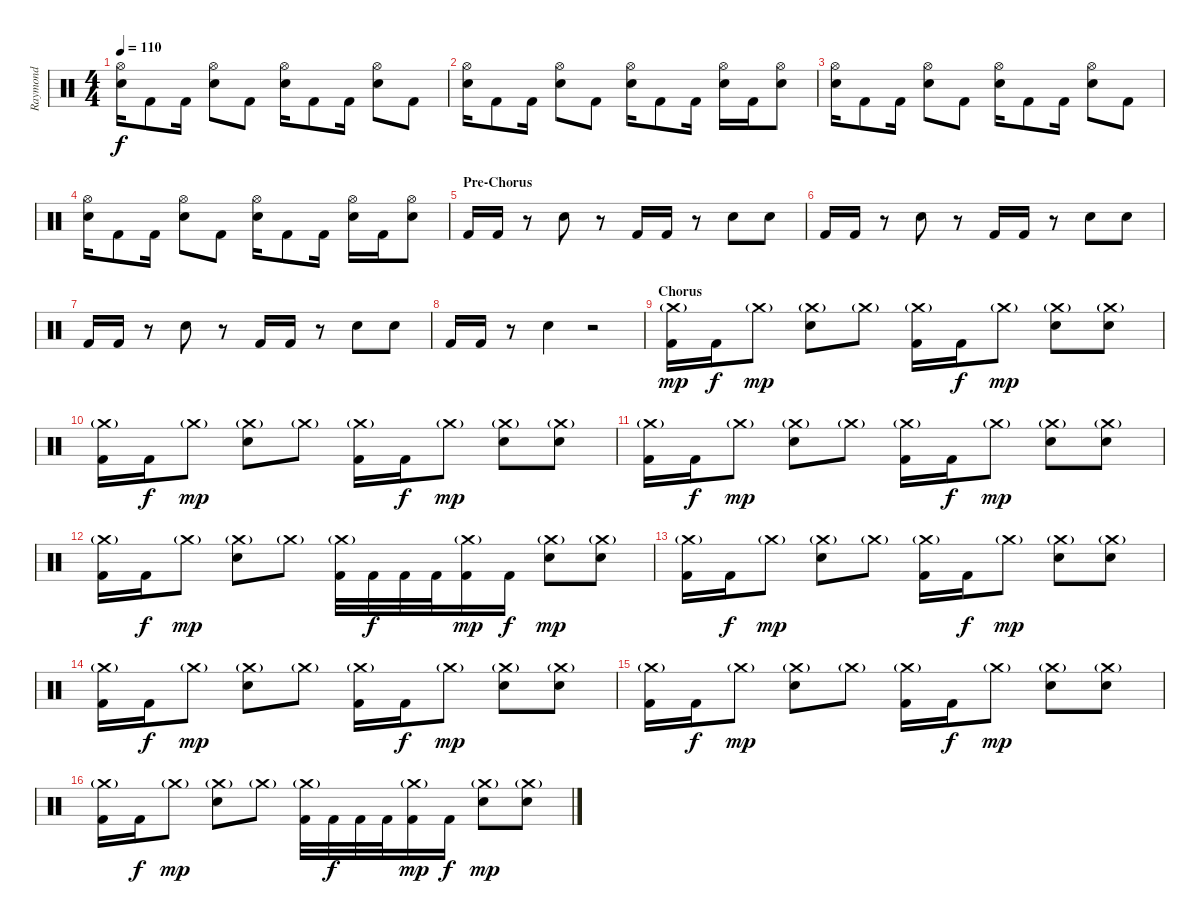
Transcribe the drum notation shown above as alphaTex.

\track ("Raymond" "Raymond") {instrument percussion}
\staff {score}
\articulation defaults
\ts (4 4)
\tempo 110
\clef neutral
\ks c
("Hi-Hat (open)" "Electric Snare (hit)").16{dy f} "Kick (hit) 2".8 "Kick (hit) 2".16 ("Hi-Hat (open)" "Electric Snare (hit)").8 "Kick (hit) 2".8 ("Hi-Hat (open)" "Electric Snare (hit)").16 "Kick (hit) 2".8 "Kick (hit) 2".16 ("Hi-Hat (open)" "Electric Snare (hit)").8 "Kick (hit) 2".8 |
("Hi-Hat (open)" "Electric Snare (hit)").16 "Kick (hit) 2".8 "Kick (hit) 2".16 ("Hi-Hat (open)" "Electric Snare (hit)").8 "Kick (hit) 2".8 ("Hi-Hat (open)" "Electric Snare (hit)").16 "Kick (hit) 2".8 "Kick (hit) 2".16 ("Hi-Hat (open)" "Electric Snare (hit)").16 "Kick (hit) 2".16 ("Hi-Hat (open)" "Electric Snare (hit)").8 |
("Hi-Hat (open)" "Electric Snare (hit)").16 "Kick (hit) 2".8 "Kick (hit) 2".16 ("Hi-Hat (open)" "Electric Snare (hit)").8 "Kick (hit) 2".8 ("Hi-Hat (open)" "Electric Snare (hit)").16 "Kick (hit) 2".8 "Kick (hit) 2".16 ("Hi-Hat (open)" "Electric Snare (hit)").8 "Kick (hit) 2".8 |
("Hi-Hat (open)" "Electric Snare (hit)").16 "Kick (hit) 2".8 "Kick (hit) 2".16 ("Hi-Hat (open)" "Electric Snare (hit)").8 "Kick (hit) 2".8 ("Hi-Hat (open)" "Electric Snare (hit)").16 "Kick (hit) 2".8 "Kick (hit) 2".16 ("Hi-Hat (open)" "Electric Snare (hit)").16 "Kick (hit) 2".16 ("Hi-Hat (open)" "Electric Snare (hit)").8 |
\section ("" "Pre-Chorus")
"Kick (hit) 2".16 "Kick (hit) 2".16 r.8 "Electric Snare (hit)".8 r.8 "Kick (hit) 2".16 "Kick (hit) 2".16 r.8 "Electric Snare (hit)".8 "Electric Snare (hit)".8 |
"Kick (hit) 2".16 "Kick (hit) 2".16 r.8 "Electric Snare (hit)".8 r.8 "Kick (hit) 2".16 "Kick (hit) 2".16 r.8 "Electric Snare (hit)".8 "Electric Snare (hit)".8 |
"Kick (hit) 2".16 "Kick (hit) 2".16 r.8 "Electric Snare (hit)".8 r.8 "Kick (hit) 2".16 "Kick (hit) 2".16 r.8 "Electric Snare (hit)".8 "Electric Snare (hit)".8 |
"Kick (hit) 2".16 "Kick (hit) 2".16 r.8 "Electric Snare (hit)".4 r.2 |
\section ("" "Chorus")
("Crash medium (hit)"{g} "Kick (hit) 2").16{dy mp} "Kick (hit) 2".16{dy f} "Crash medium (hit)"{g}.8{dy mp} ("Crash medium (hit)"{g} "Electric Snare (hit)").8 "Crash medium (hit)"{g}.8 ("Crash medium (hit)"{g} "Kick (hit) 2").16 "Kick (hit) 2".16{dy f} "Crash medium (hit)"{g}.8{dy mp} ("Crash medium (hit)"{g} "Electric Snare (hit)").8 ("Crash medium (hit)"{g} "Electric Snare (hit)").8 |
("Crash medium (hit)"{g} "Kick (hit) 2").16 "Kick (hit) 2".16{dy f} "Crash medium (hit)"{g}.8{dy mp} ("Crash medium (hit)"{g} "Electric Snare (hit)").8 "Crash medium (hit)"{g}.8 ("Crash medium (hit)"{g} "Kick (hit) 2").16 "Kick (hit) 2".16{dy f} "Crash medium (hit)"{g}.8{dy mp} ("Crash medium (hit)"{g} "Electric Snare (hit)").8 ("Crash medium (hit)"{g} "Electric Snare (hit)").8 |
("Crash medium (hit)"{g} "Kick (hit) 2").16 "Kick (hit) 2".16{dy f} "Crash medium (hit)"{g}.8{dy mp} ("Crash medium (hit)"{g} "Electric Snare (hit)").8 "Crash medium (hit)"{g}.8 ("Crash medium (hit)"{g} "Kick (hit) 2").16 "Kick (hit) 2".16{dy f} "Crash medium (hit)"{g}.8{dy mp} ("Crash medium (hit)"{g} "Electric Snare (hit)").8 ("Crash medium (hit)"{g} "Electric Snare (hit)").8 |
("Crash medium (hit)"{g} "Kick (hit) 2").16 "Kick (hit) 2".16{dy f} "Crash medium (hit)"{g}.8{dy mp} ("Crash medium (hit)"{g} "Electric Snare (hit)").8 "Crash medium (hit)"{g}.8 ("Crash medium (hit)"{g} "Kick (hit) 2").32 "Kick (hit) 2".32{dy f} "Kick (hit) 2".32 "Kick (hit) 2".32 ("Crash medium (hit)"{g} "Kick (hit) 2").16{dy mp} "Kick (hit) 2".16{dy f} ("Crash medium (hit)"{g} "Electric Snare (hit)").8{dy mp} ("Crash medium (hit)"{g} "Electric Snare (hit)").8 |
("Crash medium (hit)"{g} "Kick (hit) 2").16 "Kick (hit) 2".16{dy f} "Crash medium (hit)"{g}.8{dy mp} ("Crash medium (hit)"{g} "Electric Snare (hit)").8 "Crash medium (hit)"{g}.8 ("Crash medium (hit)"{g} "Kick (hit) 2").16 "Kick (hit) 2".16{dy f} "Crash medium (hit)"{g}.8{dy mp} ("Crash medium (hit)"{g} "Electric Snare (hit)").8 ("Crash medium (hit)"{g} "Electric Snare (hit)").8 |
("Crash medium (hit)"{g} "Kick (hit) 2").16 "Kick (hit) 2".16{dy f} "Crash medium (hit)"{g}.8{dy mp} ("Crash medium (hit)"{g} "Electric Snare (hit)").8 "Crash medium (hit)"{g}.8 ("Crash medium (hit)"{g} "Kick (hit) 2").16 "Kick (hit) 2".16{dy f} "Crash medium (hit)"{g}.8{dy mp} ("Crash medium (hit)"{g} "Electric Snare (hit)").8 ("Crash medium (hit)"{g} "Electric Snare (hit)").8 |
("Crash medium (hit)"{g} "Kick (hit) 2").16 "Kick (hit) 2".16{dy f} "Crash medium (hit)"{g}.8{dy mp} ("Crash medium (hit)"{g} "Electric Snare (hit)").8 "Crash medium (hit)"{g}.8 ("Crash medium (hit)"{g} "Kick (hit) 2").16 "Kick (hit) 2".16{dy f} "Crash medium (hit)"{g}.8{dy mp} ("Crash medium (hit)"{g} "Electric Snare (hit)").8 ("Crash medium (hit)"{g} "Electric Snare (hit)").8 |
("Crash medium (hit)"{g} "Kick (hit) 2").16 "Kick (hit) 2".16{dy f} "Crash medium (hit)"{g}.8{dy mp} ("Crash medium (hit)"{g} "Electric Snare (hit)").8 "Crash medium (hit)"{g}.8 ("Crash medium (hit)"{g} "Kick (hit) 2").32 "Kick (hit) 2".32{dy f} "Kick (hit) 2".32 "Kick (hit) 2".32 ("Crash medium (hit)"{g} "Kick (hit) 2").16{dy mp} "Kick (hit) 2".16{dy f} ("Crash medium (hit)"{g} "Electric Snare (hit)").8{dy mp} ("Crash medium (hit)"{g} "Electric Snare (hit)").8
